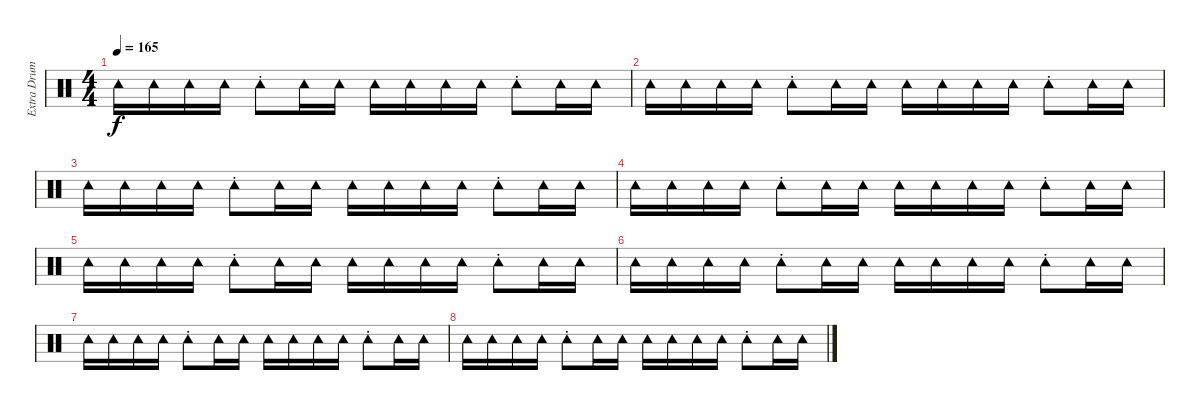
\track ("Extra Drum : Tainaka Risu - Chan" "Extra Drum") {instrument percussion}
\staff {score}
\articulation defaults
\ts (4 4)
\tempo 165
\clef neutral
\ks c "Tambourine (hit)".16{dy f} "Tambourine (hit)".16 "Tambourine (hit)".16 "Tambourine (hit)".16 "Tambourine (hit)"{st}.8 "Tambourine (hit)".16 "Tambourine (hit)".16 "Tambourine (hit)".16 "Tambourine (hit)".16 "Tambourine (hit)".16 "Tambourine (hit)".16 "Tambourine (hit)"{st}.8 "Tambourine (hit)".16 "Tambourine (hit)".16
|
"Tambourine (hit)".16 "Tambourine (hit)".16 "Tambourine (hit)".16 "Tambourine (hit)".16 "Tambourine (hit)"{st}.8 "Tambourine (hit)".16 "Tambourine (hit)".16 "Tambourine (hit)".16 "Tambourine (hit)".16 "Tambourine (hit)".16 "Tambourine (hit)".16 "Tambourine (hit)"{st}.8 "Tambourine (hit)".16 "Tambourine (hit)".16 |
"Tambourine (hit)".16 "Tambourine (hit)".16 "Tambourine (hit)".16 "Tambourine (hit)".16 "Tambourine (hit)"{st}.8 "Tambourine (hit)".16 "Tambourine (hit)".16 "Tambourine (hit)".16 "Tambourine (hit)".16 "Tambourine (hit)".16 "Tambourine (hit)".16 "Tambourine (hit)"{st}.8 "Tambourine (hit)".16 "Tambourine (hit)".16 |
"Tambourine (hit)".16 "Tambourine (hit)".16 "Tambourine (hit)".16 "Tambourine (hit)".16 "Tambourine (hit)"{st}.8 "Tambourine (hit)".16 "Tambourine (hit)".16 "Tambourine (hit)".16 "Tambourine (hit)".16 "Tambourine (hit)".16 "Tambourine (hit)".16 "Tambourine (hit)"{st}.8 "Tambourine (hit)".16 "Tambourine (hit)".16 |
"Tambourine (hit)".16 "Tambourine (hit)".16 "Tambourine (hit)".16 "Tambourine (hit)".16 "Tambourine (hit)"{st}.8 "Tambourine (hit)".16 "Tambourine (hit)".16 "Tambourine (hit)".16 "Tambourine (hit)".16 "Tambourine (hit)".16 "Tambourine (hit)".16 "Tambourine (hit)"{st}.8 "Tambourine (hit)".16 "Tambourine (hit)".16 |
"Tambourine (hit)".16 "Tambourine (hit)".16 "Tambourine (hit)".16 "Tambourine (hit)".16 "Tambourine (hit)"{st}.8 "Tambourine (hit)".16 "Tambourine (hit)".16 "Tambourine (hit)".16 "Tambourine (hit)".16 "Tambourine (hit)".16 "Tambourine (hit)".16 "Tambourine (hit)"{st}.8 "Tambourine (hit)".16 "Tambourine (hit)".16 |
"Tambourine (hit)".16 "Tambourine (hit)".16 "Tambourine (hit)".16 "Tambourine (hit)".16 "Tambourine (hit)"{st}.8 "Tambourine (hit)".16 "Tambourine (hit)".16 "Tambourine (hit)".16 "Tambourine (hit)".16 "Tambourine (hit)".16 "Tambourine (hit)".16 "Tambourine (hit)"{st}.8 "Tambourine (hit)".16 "Tambourine (hit)".16 |
"Tambourine (hit)".16 "Tambourine (hit)".16 "Tambourine (hit)".16 "Tambourine (hit)".16 "Tambourine (hit)"{st}.8 "Tambourine (hit)".16 "Tambourine (hit)".16 "Tambourine (hit)".16 "Tambourine (hit)".16 "Tambourine (hit)".16 "Tambourine (hit)".16 "Tambourine (hit)"{st}.8 "Tambourine (hit)".16 "Tambourine (hit)".16
